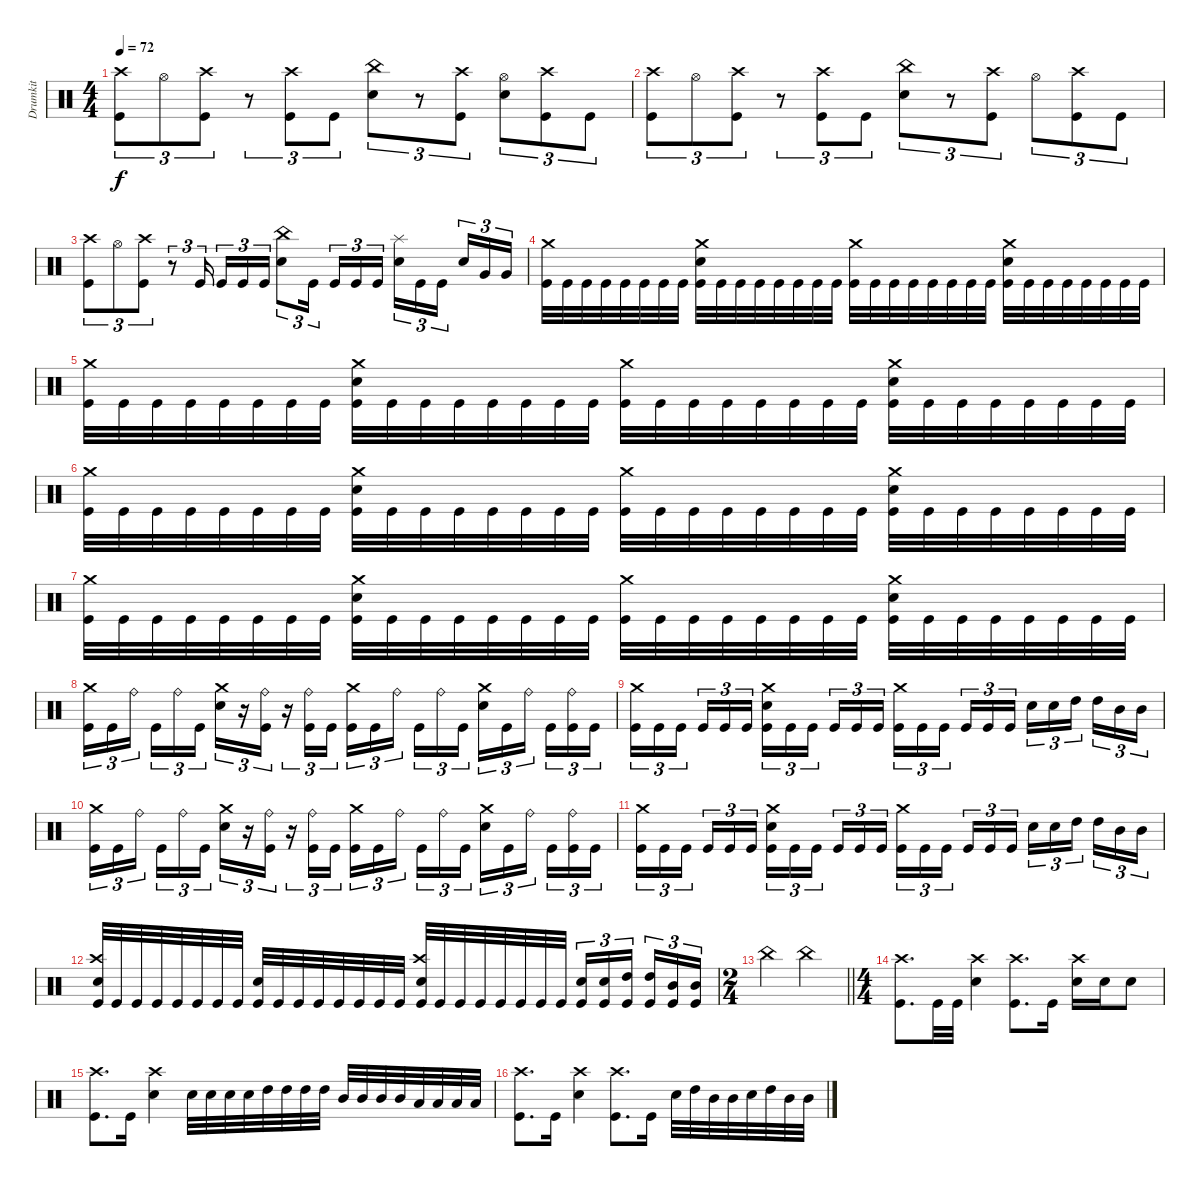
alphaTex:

\track ("Drumkit" "Drumkit") {instrument percussion}
\staff {score}
\articulation defaults
\ts (4 4)
\tempo 72
\clef neutral
\ks c
("Kick (hit)" "Crash high (hit)").8{tu (3 2) dy f} "Hi-Hat (open)".8{tu (3 2)} ("Kick (hit)" "Crash high (hit)").8{tu (3 2)} r.8{tu (3 2)} ("Kick (hit)" "Crash high (hit)").8{tu (3 2)} "Kick (hit)".8{tu (3 2)} ("Snare (hit) 2" "China (hit)").8{tu (3 2)} r.8{tu (3 2)} ("Kick (hit)" "Crash high (hit)").8{tu (3 2)} ("Hi-Hat (open)" "Snare (hit) 2").8{tu (3 2)} ("Kick (hit)" "Crash high (hit)").8{tu (3 2)} "Kick (hit)".8{tu (3 2)} |
("Kick (hit)" "Crash high (hit)").8{tu (3 2)} "Hi-Hat (open)".8{tu (3 2)} ("Kick (hit)" "Crash high (hit)").8{tu (3 2)} r.8{tu (3 2)} ("Kick (hit)" "Crash high (hit)").8{tu (3 2)} "Kick (hit)".8{tu (3 2)} ("Snare (hit) 2" "China (hit)").8{tu (3 2)} r.8{tu (3 2)} ("Kick (hit)" "Crash high (hit)").8{tu (3 2)} "Hi-Hat (open)".8{tu (3 2)} ("Kick (hit)" "Crash high (hit)").8{tu (3 2)} "Kick (hit)".8{tu (3 2)} |
("Kick (hit)" "Crash high (hit)").8{tu (3 2)} "Hi-Hat (open)".8{tu (3 2)} ("Kick (hit)" "Crash high (hit)").8{tu (3 2)} r.8{tu (3 2)} "Kick (hit)".16{tu (3 2) beam splitsecondary} "Kick (hit)".16{tu (3 2)} "Kick (hit)".16{tu (3 2)} "Kick (hit)".16{tu (3 2)} ("Snare (hit) 2" "China (hit)").8{tu (3 2)} "Kick (hit)".16{tu (3 2) beam splitsecondary} "Kick (hit)".16{tu (3 2)} "Kick (hit)".16{tu (3 2)} "Kick (hit)".16{tu (3 2)} ("Snare (hit) 2" "Splash (hit)").16{tu (3 2)} "Kick (hit)".16{tu (3 2)} "Kick (hit)".16{tu (3 2) beam splitsecondary} "Snare (hit) 2".16{tu (3 2)} "Very Low Tom (hit)".16{tu (3 2)} "Very Low Tom (hit)".16{tu (3 2)} |
("Kick (hit)" "Crash medium (hit)").32 "Kick (hit)".32 "Kick (hit)".32 "Kick (hit)".32 "Kick (hit)".32 "Kick (hit)".32 "Kick (hit)".32 "Kick (hit)".32 ("Kick (hit)" "Snare (hit) 2" "Crash medium (hit)").32 "Kick (hit)".32 "Kick (hit)".32 "Kick (hit)".32 "Kick (hit)".32 "Kick (hit)".32 "Kick (hit)".32 "Kick (hit)".32 ("Kick (hit)" "Crash medium (hit)").32 "Kick (hit)".32 "Kick (hit)".32 "Kick (hit)".32 "Kick (hit)".32 "Kick (hit)".32 "Kick (hit)".32 "Kick (hit)".32 ("Kick (hit)" "Snare (hit) 2" "Crash medium (hit)").32 "Kick (hit)".32 "Kick (hit)".32 "Kick (hit)".32 "Kick (hit)".32 "Kick (hit)".32 "Kick (hit)".32 "Kick (hit)".32 |
("Kick (hit)" "Crash medium (hit)").32 "Kick (hit)".32 "Kick (hit)".32 "Kick (hit)".32 "Kick (hit)".32 "Kick (hit)".32 "Kick (hit)".32 "Kick (hit)".32 ("Kick (hit)" "Snare (hit) 2" "Crash medium (hit)").32 "Kick (hit)".32 "Kick (hit)".32 "Kick (hit)".32 "Kick (hit)".32 "Kick (hit)".32 "Kick (hit)".32 "Kick (hit)".32 ("Kick (hit)" "Crash medium (hit)").32 "Kick (hit)".32 "Kick (hit)".32 "Kick (hit)".32 "Kick (hit)".32 "Kick (hit)".32 "Kick (hit)".32 "Kick (hit)".32 ("Kick (hit)" "Snare (hit) 2" "Crash medium (hit)").32 "Kick (hit)".32 "Kick (hit)".32 "Kick (hit)".32 "Kick (hit)".32 "Kick (hit)".32 "Kick (hit)".32 "Kick (hit)".32 |
("Kick (hit)" "Crash medium (hit)").32 "Kick (hit)".32 "Kick (hit)".32 "Kick (hit)".32 "Kick (hit)".32 "Kick (hit)".32 "Kick (hit)".32 "Kick (hit)".32 ("Kick (hit)" "Snare (hit) 2" "Crash medium (hit)").32 "Kick (hit)".32 "Kick (hit)".32 "Kick (hit)".32 "Kick (hit)".32 "Kick (hit)".32 "Kick (hit)".32 "Kick (hit)".32 ("Kick (hit)" "Crash medium (hit)").32 "Kick (hit)".32 "Kick (hit)".32 "Kick (hit)".32 "Kick (hit)".32 "Kick (hit)".32 "Kick (hit)".32 "Kick (hit)".32 ("Kick (hit)" "Snare (hit) 2" "Crash medium (hit)").32 "Kick (hit)".32 "Kick (hit)".32 "Kick (hit)".32 "Kick (hit)".32 "Kick (hit)".32 "Kick (hit)".32 "Kick (hit)".32 |
("Kick (hit)" "Crash medium (hit)").32 "Kick (hit)".32 "Kick (hit)".32 "Kick (hit)".32 "Kick (hit)".32 "Kick (hit)".32 "Kick (hit)".32 "Kick (hit)".32 ("Kick (hit)" "Snare (hit) 2" "Crash medium (hit)").32 "Kick (hit)".32 "Kick (hit)".32 "Kick (hit)".32 "Kick (hit)".32 "Kick (hit)".32 "Kick (hit)".32 "Kick (hit)".32 ("Kick (hit)" "Crash medium (hit)").32 "Kick (hit)".32 "Kick (hit)".32 "Kick (hit)".32 "Kick (hit)".32 "Kick (hit)".32 "Kick (hit)".32 "Kick (hit)".32 ("Kick (hit)" "Snare (hit) 2" "Crash medium (hit)").32 "Kick (hit)".32 "Kick (hit)".32 "Kick (hit)".32 "Kick (hit)".32 "Kick (hit)".32 "Kick (hit)".32 "Kick (hit)".32 |
("Kick (hit)" "Crash medium (hit)").16{tu (3 2)} "Kick (hit)".16{tu (3 2)} "Ride (bell)".16{tu (3 2) beam splitsecondary} "Kick (hit)".16{tu (3 2)} "Ride (bell)".16{tu (3 2)} "Kick (hit)".16{tu (3 2)} ("Snare (hit) 2" "Crash medium (hit)").16{tu (3 2)} r.16{tu (3 2)} ("Kick (hit)" "Ride (bell)").16{tu (3 2)} r.16{tu (3 2)} ("Kick (hit)" "Ride (bell)").16{tu (3 2)} "Kick (hit)".16{tu (3 2)} ("Kick (hit)" "Crash medium (hit)").16{tu (3 2)} "Kick (hit)".16{tu (3 2)} "Ride (bell)".16{tu (3 2) beam splitsecondary} "Kick (hit)".16{tu (3 2)} "Ride (bell)".16{tu (3 2)} "Kick (hit)".16{tu (3 2)} ("Snare (hit) 2" "Crash medium (hit)").16{tu (3 2)} "Kick (hit)".16{tu (3 2)} "Ride (bell)".16{tu (3 2) beam splitsecondary} "Kick (hit)".16{tu (3 2)} ("Kick (hit)" "Ride (bell)").16{tu (3 2)} "Kick (hit)".16{tu (3 2)} |
("Kick (hit)" "Crash medium (hit)").16{tu (3 2)} "Kick (hit)".16{tu (3 2)} "Kick (hit)".16{tu (3 2) beam splitsecondary} "Kick (hit)".16{tu (3 2)} "Kick (hit)".16{tu (3 2)} "Kick (hit)".16{tu (3 2)} ("Kick (hit)" "Snare (hit) 2" "Crash medium (hit)").16{tu (3 2)} "Kick (hit)".16{tu (3 2)} "Kick (hit)".16{tu (3 2) beam splitsecondary} "Kick (hit)".16{tu (3 2)} "Kick (hit)".16{tu (3 2)} "Kick (hit)".16{tu (3 2)} ("Kick (hit)" "Crash medium (hit)").16{tu (3 2)} "Kick (hit)".16{tu (3 2)} "Kick (hit)".16{tu (3 2) beam splitsecondary} "Kick (hit)".16{tu (3 2)} "Kick (hit)".16{tu (3 2)} "Kick (hit)".16{tu (3 2)} "Snare (hit) 2".16{tu (3 2)} "Snare (hit) 2".16{tu (3 2)} "High Tom (hit)".16{tu (3 2) beam splitsecondary} "High Tom (hit)".16{tu (3 2)} "Mid Tom (hit)".16{tu (3 2)} "Mid Tom (hit)".16{tu (3 2)} |
("Kick (hit)" "Crash medium (hit)").16{tu (3 2)} "Kick (hit)".16{tu (3 2)} "Ride (bell)".16{tu (3 2) beam splitsecondary} "Kick (hit)".16{tu (3 2)} "Ride (bell)".16{tu (3 2)} "Kick (hit)".16{tu (3 2)} ("Snare (hit) 2" "Crash medium (hit)").16{tu (3 2)} r.16{tu (3 2)} ("Kick (hit)" "Ride (bell)").16{tu (3 2)} r.16{tu (3 2)} ("Kick (hit)" "Ride (bell)").16{tu (3 2)} "Kick (hit)".16{tu (3 2)} ("Kick (hit)" "Crash medium (hit)").16{tu (3 2)} "Kick (hit)".16{tu (3 2)} "Ride (bell)".16{tu (3 2) beam splitsecondary} "Kick (hit)".16{tu (3 2)} "Ride (bell)".16{tu (3 2)} "Kick (hit)".16{tu (3 2)} ("Snare (hit) 2" "Crash medium (hit)").16{tu (3 2)} "Kick (hit)".16{tu (3 2)} "Ride (bell)".16{tu (3 2) beam splitsecondary} "Kick (hit)".16{tu (3 2)} ("Kick (hit)" "Ride (bell)").16{tu (3 2)} "Kick (hit)".16{tu (3 2)} |
("Kick (hit)" "Crash medium (hit)").16{tu (3 2)} "Kick (hit)".16{tu (3 2)} "Kick (hit)".16{tu (3 2) beam splitsecondary} "Kick (hit)".16{tu (3 2)} "Kick (hit)".16{tu (3 2)} "Kick (hit)".16{tu (3 2)} ("Kick (hit)" "Snare (hit) 2" "Crash medium (hit)").16{tu (3 2)} "Kick (hit)".16{tu (3 2)} "Kick (hit)".16{tu (3 2) beam splitsecondary} "Kick (hit)".16{tu (3 2)} "Kick (hit)".16{tu (3 2)} "Kick (hit)".16{tu (3 2)} ("Kick (hit)" "Crash medium (hit)").16{tu (3 2)} "Kick (hit)".16{tu (3 2)} "Kick (hit)".16{tu (3 2) beam splitsecondary} "Kick (hit)".16{tu (3 2)} "Kick (hit)".16{tu (3 2)} "Kick (hit)".16{tu (3 2)} "Snare (hit) 2".16{tu (3 2)} "Snare (hit) 2".16{tu (3 2)} "High Tom (hit)".16{tu (3 2) beam splitsecondary} "High Tom (hit)".16{tu (3 2)} "Mid Tom (hit)".16{tu (3 2)} "Mid Tom (hit)".16{tu (3 2)} |
("Kick (hit)" "Snare (hit) 2" "Crash high (hit)").32 "Kick (hit)".32 "Kick (hit)".32 "Kick (hit)".32 "Kick (hit)".32 "Kick (hit)".32 "Kick (hit)".32 "Kick (hit)".32 ("Kick (hit)" "Snare (hit) 2").32 "Kick (hit)".32 "Kick (hit)".32 "Kick (hit)".32 "Kick (hit)".32 "Kick (hit)".32 "Kick (hit)".32 "Kick (hit)".32 ("Kick (hit)" "Snare (hit) 2" "Crash high (hit)").32 "Kick (hit)".32 "Kick (hit)".32 "Kick (hit)".32 "Kick (hit)".32 "Kick (hit)".32 "Kick (hit)".32 "Kick (hit)".32 ("Kick (hit)" "Snare (hit) 2").16{tu (3 2)} ("Kick (hit)" "Snare (hit) 2").16{tu (3 2)} ("Kick (hit)" "High Tom (hit)").16{tu (3 2) beam splitsecondary} ("Kick (hit)" "High Tom (hit)").16{tu (3 2)} ("Kick (hit)" "Mid Tom (hit)").16{tu (3 2)} ("Kick (hit)" "Mid Tom (hit)").16{tu (3 2)} |
\ts (2 4)
\barLineRight lightlight "China (hit)".4 "China (hit)".4
|
\ts (4 4)
("Kick (hit)" "Crash high (hit)").8{d} "Kick (hit)".32 "Kick (hit)".32 ("Snare (hit) 2" "Crash high (hit)").4 ("Kick (hit)" "Crash high (hit)").8{d} "Kick (hit)".16 ("Snare (hit) 2" "Crash high (hit)").16 "Snare (hit) 2".16 "Snare (hit) 2".8 |
("Kick (hit)" "Crash high (hit)").8{d} "Kick (hit)".16 ("Snare (hit) 2" "Crash high (hit)").4 "Snare (hit) 2".32 "Snare (hit) 2".32 "Snare (hit) 2".32 "Snare (hit) 2".32 "High Tom (hit)".32 "High Tom (hit)".32 "High Tom (hit)".32 "High Tom (hit)".32 "Mid Tom (hit)".32 "Mid Tom (hit)".32 "Mid Tom (hit)".32 "Mid Tom (hit)".32 "Low Floor Tom (hit)".32 "Low Floor Tom (hit)".32 "Low Floor Tom (hit)".32 "Low Floor Tom (hit)".32 |
("Kick (hit)" "Crash high (hit)").8{d} "Kick (hit)".16 ("Snare (hit) 2" "Crash high (hit)").4 ("Kick (hit)" "Crash high (hit)").8{d} "Kick (hit)".16 "Snare (hit) 2".32 "High Tom (hit)".32 "Mid Tom (hit)".32 "Mid Tom (hit)".32 "Snare (hit) 2".32 "High Tom (hit)".32 "Mid Tom (hit)".32 "Mid Tom (hit)".32
